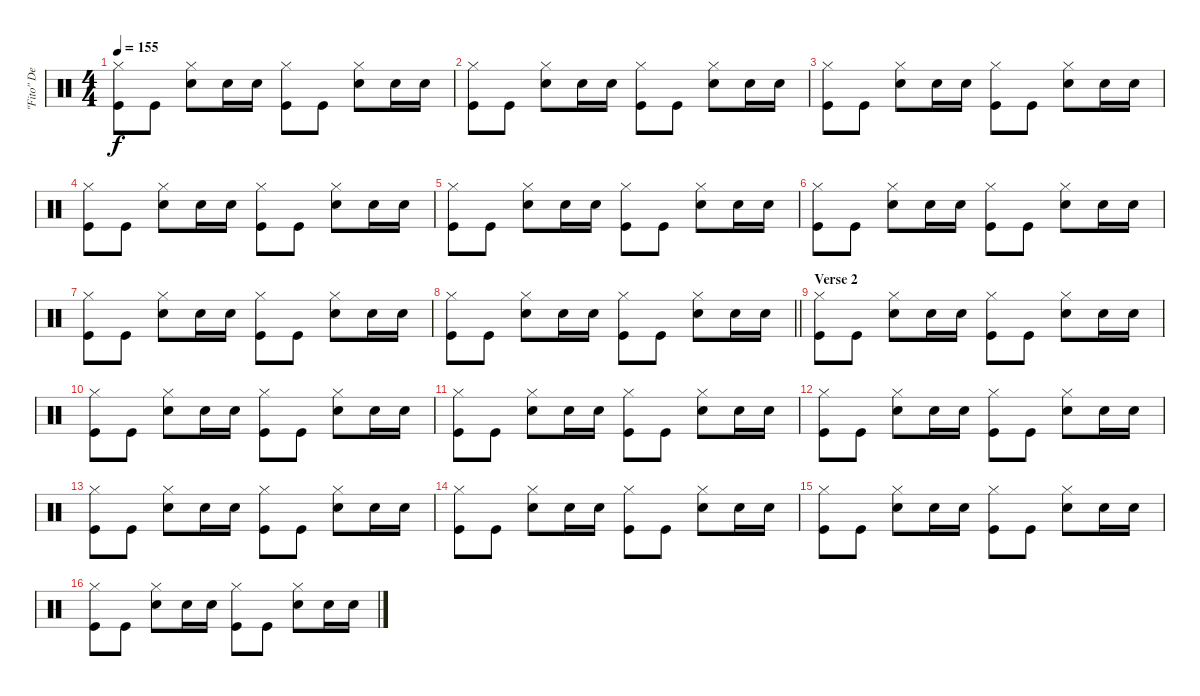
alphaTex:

\track ("\"Fito\" De La Parra" "\"Fito\" De ") {instrument percussion}
\staff {score}
\articulation defaults
\ts (4 4)
\tempo 155
\clef neutral
\ks c
("Hi-Hat (closed)" "Kick (hit)").8{dy f} "Kick (hit)".8 ("Hi-Hat (closed)" "Snare (hit) 2").8 "Snare (hit) 2".16 "Snare (hit) 2".16 ("Hi-Hat (closed)" "Kick (hit)").8 "Kick (hit)".8 ("Hi-Hat (closed)" "Snare (hit) 2").8 "Snare (hit) 2".16 "Snare (hit) 2".16 |
("Hi-Hat (closed)" "Kick (hit)").8 "Kick (hit)".8 ("Hi-Hat (closed)" "Snare (hit) 2").8 "Snare (hit) 2".16 "Snare (hit) 2".16 ("Hi-Hat (closed)" "Kick (hit)").8 "Kick (hit)".8 ("Hi-Hat (closed)" "Snare (hit) 2").8 "Snare (hit) 2".16 "Snare (hit) 2".16 |
("Hi-Hat (closed)" "Kick (hit)").8 "Kick (hit)".8 ("Hi-Hat (closed)" "Snare (hit) 2").8 "Snare (hit) 2".16 "Snare (hit) 2".16 ("Hi-Hat (closed)" "Kick (hit)").8 "Kick (hit)".8 ("Hi-Hat (closed)" "Snare (hit) 2").8 "Snare (hit) 2".16 "Snare (hit) 2".16 |
("Hi-Hat (closed)" "Kick (hit)").8 "Kick (hit)".8 ("Hi-Hat (closed)" "Snare (hit) 2").8 "Snare (hit) 2".16 "Snare (hit) 2".16 ("Hi-Hat (closed)" "Kick (hit)").8 "Kick (hit)".8 ("Hi-Hat (closed)" "Snare (hit) 2").8 "Snare (hit) 2".16 "Snare (hit) 2".16 |
("Hi-Hat (closed)" "Kick (hit)").8 "Kick (hit)".8 ("Hi-Hat (closed)" "Snare (hit) 2").8 "Snare (hit) 2".16 "Snare (hit) 2".16 ("Hi-Hat (closed)" "Kick (hit)").8 "Kick (hit)".8 ("Hi-Hat (closed)" "Snare (hit) 2").8 "Snare (hit) 2".16 "Snare (hit) 2".16 |
("Hi-Hat (closed)" "Kick (hit)").8 "Kick (hit)".8 ("Hi-Hat (closed)" "Snare (hit) 2").8 "Snare (hit) 2".16 "Snare (hit) 2".16 ("Hi-Hat (closed)" "Kick (hit)").8 "Kick (hit)".8 ("Hi-Hat (closed)" "Snare (hit) 2").8 "Snare (hit) 2".16 "Snare (hit) 2".16 |
("Hi-Hat (closed)" "Kick (hit)").8 "Kick (hit)".8 ("Hi-Hat (closed)" "Snare (hit) 2").8 "Snare (hit) 2".16 "Snare (hit) 2".16 ("Hi-Hat (closed)" "Kick (hit)").8 "Kick (hit)".8 ("Hi-Hat (closed)" "Snare (hit) 2").8 "Snare (hit) 2".16 "Snare (hit) 2".16 |
\barLineRight lightlight
("Hi-Hat (closed)" "Kick (hit)").8 "Kick (hit)".8 ("Hi-Hat (closed)" "Snare (hit) 2").8 "Snare (hit) 2".16 "Snare (hit) 2".16 ("Hi-Hat (closed)" "Kick (hit)").8 "Kick (hit)".8 ("Hi-Hat (closed)" "Snare (hit) 2").8 "Snare (hit) 2".16 "Snare (hit) 2".16 |
\section ("" "Verse 2")
("Hi-Hat (closed)" "Kick (hit)").8 "Kick (hit)".8 ("Hi-Hat (closed)" "Snare (hit) 2").8 "Snare (hit) 2".16 "Snare (hit) 2".16 ("Hi-Hat (closed)" "Kick (hit)").8 "Kick (hit)".8 ("Hi-Hat (closed)" "Snare (hit) 2").8 "Snare (hit) 2".16 "Snare (hit) 2".16 |
("Hi-Hat (closed)" "Kick (hit)").8 "Kick (hit)".8 ("Hi-Hat (closed)" "Snare (hit) 2").8 "Snare (hit) 2".16 "Snare (hit) 2".16 ("Hi-Hat (closed)" "Kick (hit)").8 "Kick (hit)".8 ("Hi-Hat (closed)" "Snare (hit) 2").8 "Snare (hit) 2".16 "Snare (hit) 2".16 |
("Hi-Hat (closed)" "Kick (hit)").8 "Kick (hit)".8 ("Hi-Hat (closed)" "Snare (hit) 2").8 "Snare (hit) 2".16 "Snare (hit) 2".16 ("Hi-Hat (closed)" "Kick (hit)").8 "Kick (hit)".8 ("Hi-Hat (closed)" "Snare (hit) 2").8 "Snare (hit) 2".16 "Snare (hit) 2".16 |
("Hi-Hat (closed)" "Kick (hit)").8 "Kick (hit)".8 ("Hi-Hat (closed)" "Snare (hit) 2").8 "Snare (hit) 2".16 "Snare (hit) 2".16 ("Hi-Hat (closed)" "Kick (hit)").8 "Kick (hit)".8 ("Hi-Hat (closed)" "Snare (hit) 2").8 "Snare (hit) 2".16 "Snare (hit) 2".16 |
("Hi-Hat (closed)" "Kick (hit)").8 "Kick (hit)".8 ("Hi-Hat (closed)" "Snare (hit) 2").8 "Snare (hit) 2".16 "Snare (hit) 2".16 ("Hi-Hat (closed)" "Kick (hit)").8 "Kick (hit)".8 ("Hi-Hat (closed)" "Snare (hit) 2").8 "Snare (hit) 2".16 "Snare (hit) 2".16 |
("Hi-Hat (closed)" "Kick (hit)").8 "Kick (hit)".8 ("Hi-Hat (closed)" "Snare (hit) 2").8 "Snare (hit) 2".16 "Snare (hit) 2".16 ("Hi-Hat (closed)" "Kick (hit)").8 "Kick (hit)".8 ("Hi-Hat (closed)" "Snare (hit) 2").8 "Snare (hit) 2".16 "Snare (hit) 2".16 |
("Hi-Hat (closed)" "Kick (hit)").8 "Kick (hit)".8 ("Hi-Hat (closed)" "Snare (hit) 2").8 "Snare (hit) 2".16 "Snare (hit) 2".16 ("Hi-Hat (closed)" "Kick (hit)").8 "Kick (hit)".8 ("Hi-Hat (closed)" "Snare (hit) 2").8 "Snare (hit) 2".16 "Snare (hit) 2".16 |
("Hi-Hat (closed)" "Kick (hit)").8 "Kick (hit)".8 ("Hi-Hat (closed)" "Snare (hit) 2").8 "Snare (hit) 2".16 "Snare (hit) 2".16 ("Hi-Hat (closed)" "Kick (hit)").8 "Kick (hit)".8 ("Hi-Hat (closed)" "Snare (hit) 2").8 "Snare (hit) 2".16 "Snare (hit) 2".16
